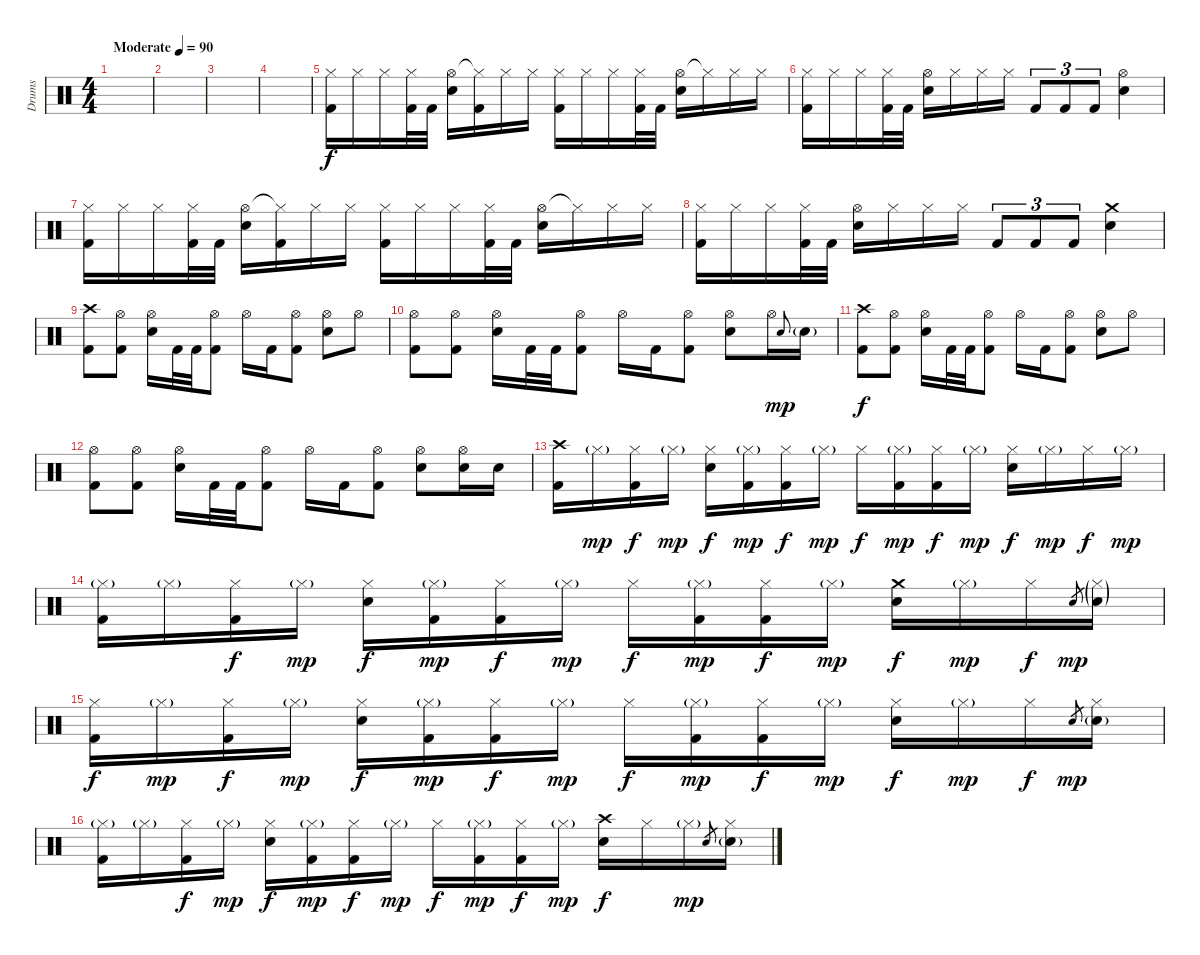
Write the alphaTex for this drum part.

\track ("Drums" "Drums") {instrument percussion}
\staff {score}
\articulation defaults
\ts (4 4)
\tempo (90 "Moderate")
\clef neutral
\ks c
|
|
|
|
("Hi-Hat (closed)" "Kick (hit) 2").16 "Hi-Hat (closed)".16 "Hi-Hat (closed)".16 ("Hi-Hat (closed)" "Kick (hit) 2").32 "Kick (hit) 2".32 ("Hi-Hat (open)" "Electric Snare (hit)").16 ("Hi-Hat (closed)"{t} "Kick (hit) 2").16 "Hi-Hat (closed)".16 "Hi-Hat (closed)".16 ("Hi-Hat (closed)" "Kick (hit) 2").16 "Hi-Hat (closed)".16 "Hi-Hat (closed)".16 ("Hi-Hat (closed)" "Kick (hit) 2").32 "Kick (hit) 2".32 ("Hi-Hat (open)" "Electric Snare (hit)").16 "Hi-Hat (closed)"{t}.16 "Hi-Hat (closed)".16 "Hi-Hat (closed)".16 |
("Hi-Hat (closed)" "Kick (hit) 2").16 "Hi-Hat (closed)".16 "Hi-Hat (closed)".16 ("Hi-Hat (closed)" "Kick (hit) 2").32 "Kick (hit) 2".32 ("Hi-Hat (open)" "Electric Snare (hit)").16 "Hi-Hat (closed)".16 "Hi-Hat (closed)".16 "Hi-Hat (closed)".16 "Kick (hit) 2".8{tu (3 2)} "Kick (hit) 2".8{tu (3 2)} "Kick (hit) 2".8{tu (3 2)} ("Hi-Hat (open)" "Electric Snare (hit)").4 |
("Hi-Hat (closed)" "Kick (hit) 2").16 "Hi-Hat (closed)".16 "Hi-Hat (closed)".16 ("Hi-Hat (closed)" "Kick (hit) 2").32 "Kick (hit) 2".32 ("Hi-Hat (open)" "Electric Snare (hit)").16 ("Hi-Hat (closed)"{t} "Kick (hit) 2").16 "Hi-Hat (closed)".16 "Hi-Hat (closed)".16 ("Hi-Hat (closed)" "Kick (hit) 2").16 "Hi-Hat (closed)".16 "Hi-Hat (closed)".16 ("Hi-Hat (closed)" "Kick (hit) 2").32 "Kick (hit) 2".32 ("Hi-Hat (open)" "Electric Snare (hit)").16 "Hi-Hat (closed)"{t}.16 "Hi-Hat (closed)".16 "Hi-Hat (closed)".16 |
("Hi-Hat (closed)" "Kick (hit) 2").16 "Hi-Hat (closed)".16 "Hi-Hat (closed)".16 ("Hi-Hat (closed)" "Kick (hit) 2").32 "Kick (hit) 2".32 ("Hi-Hat (open)" "Electric Snare (hit)").16 "Hi-Hat (closed)".16 "Hi-Hat (closed)".16 "Hi-Hat (closed)".16 "Kick (hit) 2".8{tu (3 2)} "Kick (hit) 2".8{tu (3 2)} "Kick (hit) 2".8{tu (3 2)} ("Crash medium (hit)" "Electric Snare (hit)").4 |
("Crash high (hit)" "Kick (hit) 2").8 ("Hi-Hat (open)" "Kick (hit) 2").8 ("Hi-Hat (open)" "Electric Snare (hit)").16 "Kick (hit) 2".32 "Kick (hit) 2".32 ("Hi-Hat (open)" "Kick (hit) 2").8 "Hi-Hat (open)".16 "Kick (hit) 2".16 ("Hi-Hat (open)" "Kick (hit) 2").8 ("Hi-Hat (open)" "Electric Snare (hit)").8 "Hi-Hat (open)".8 |
("Hi-Hat (open)" "Kick (hit) 2").8 ("Hi-Hat (open)" "Kick (hit) 2").8 ("Hi-Hat (open)" "Electric Snare (hit)").16 "Kick (hit) 2".32 "Kick (hit) 2".32 ("Hi-Hat (open)" "Kick (hit) 2").8 "Hi-Hat (open)".16 "Kick (hit) 2".16 ("Hi-Hat (open)" "Kick (hit) 2").8 ("Hi-Hat (open)" "Electric Snare (hit)").8 "Hi-Hat (open)".16 "Electric Snare (hit)"{x}.8{gr onbeat dy mp} "Electric Snare (hit)"{g}.16 |
("Crash high (hit)" "Kick (hit) 2").8{dy f} ("Hi-Hat (open)" "Kick (hit) 2").8 ("Hi-Hat (open)" "Electric Snare (hit)").16 "Kick (hit) 2".32 "Kick (hit) 2".32 ("Hi-Hat (open)" "Kick (hit) 2").8 "Hi-Hat (open)".16 "Kick (hit) 2".16 ("Hi-Hat (open)" "Kick (hit) 2").8 ("Hi-Hat (open)" "Electric Snare (hit)").8 "Hi-Hat (open)".8 |
("Hi-Hat (open)" "Kick (hit) 2").8 ("Hi-Hat (open)" "Kick (hit) 2").8 ("Hi-Hat (open)" "Electric Snare (hit)").16 "Kick (hit) 2".32 "Kick (hit) 2".32 ("Hi-Hat (open)" "Kick (hit) 2").8 "Hi-Hat (open)".16 "Kick (hit) 2".16 ("Hi-Hat (open)" "Kick (hit) 2").8 ("Hi-Hat (open)" "Electric Snare (hit)").8 ("Hi-Hat (open)" "Electric Snare (hit)").16 "Electric Snare (hit)".16 |
("Crash high (hit)" "Kick (hit) 2").16 "Hi-Hat (closed)"{g}.16{dy mp} ("Hi-Hat (closed)" "Kick (hit) 2").16{dy f} "Hi-Hat (closed)"{g}.16{dy mp} ("Hi-Hat (closed)" "Electric Snare (hit)").16{dy f} ("Hi-Hat (closed)"{g} "Kick (hit) 2").16{dy mp} ("Hi-Hat (closed)" "Kick (hit) 2").16{dy f} "Hi-Hat (closed)"{g}.16{dy mp} "Hi-Hat (closed)".16{dy f} ("Hi-Hat (closed)"{g} "Kick (hit) 2").16{dy mp} ("Hi-Hat (closed)" "Kick (hit) 2").16{dy f} "Hi-Hat (closed)"{g}.16{dy mp} ("Hi-Hat (closed)" "Electric Snare (hit)").16{dy f} "Hi-Hat (closed)"{g}.16{dy mp} "Hi-Hat (closed)".16{dy f} "Hi-Hat (closed)"{g}.16{dy mp} |
("Hi-Hat (closed)"{g} "Kick (hit) 2").16 "Hi-Hat (closed)"{g}.16 ("Hi-Hat (closed)" "Kick (hit) 2").16{dy f} "Hi-Hat (closed)"{g}.16{dy mp} ("Hi-Hat (closed)" "Electric Snare (hit)").16{dy f} ("Hi-Hat (closed)"{g} "Kick (hit) 2").16{dy mp} ("Hi-Hat (closed)" "Kick (hit) 2").16{dy f} "Hi-Hat (closed)"{g}.16{dy mp} "Hi-Hat (closed)".16{dy f} ("Hi-Hat (closed)"{g} "Kick (hit) 2").16{dy mp} ("Hi-Hat (closed)" "Kick (hit) 2").16{dy f} "Hi-Hat (closed)"{g}.16{dy mp} ("Crash medium (hit)" "Electric Snare (hit)").16{dy f} "Hi-Hat (closed)"{g}.16{dy mp} "Hi-Hat (closed)".16{dy f} "Electric Snare (hit)"{x}.8{gr dy mp} ("Hi-Hat (closed)"{g} "Electric Snare (hit)"{g}).16 |
("Hi-Hat (closed)" "Kick (hit) 2").16{dy f} "Hi-Hat (closed)"{g}.16{dy mp} ("Hi-Hat (closed)" "Kick (hit) 2").16{dy f} "Hi-Hat (closed)"{g}.16{dy mp} ("Hi-Hat (closed)" "Electric Snare (hit)").16{dy f} ("Hi-Hat (closed)"{g} "Kick (hit) 2").16{dy mp} ("Hi-Hat (closed)" "Kick (hit) 2").16{dy f} "Hi-Hat (closed)"{g}.16{dy mp} "Hi-Hat (closed)".16{dy f} ("Hi-Hat (closed)"{g} "Kick (hit) 2").16{dy mp} ("Hi-Hat (closed)" "Kick (hit) 2").16{dy f} "Hi-Hat (closed)"{g}.16{dy mp} ("Hi-Hat (closed)" "Electric Snare (hit)").16{dy f} "Hi-Hat (closed)"{g}.16{dy mp} "Hi-Hat (closed)".16{dy f} "Electric Snare (hit)".8{gr dy mp} ("Hi-Hat (closed)" "Electric Snare (hit)"{g}).16 |
("Hi-Hat (closed)"{g} "Kick (hit) 2").16 "Hi-Hat (closed)"{g}.16 ("Hi-Hat (closed)" "Kick (hit) 2").16{dy f} "Hi-Hat (closed)"{g}.16{dy mp} ("Hi-Hat (closed)" "Electric Snare (hit)").16{dy f} ("Hi-Hat (closed)"{g} "Kick (hit) 2").16{dy mp} ("Hi-Hat (closed)" "Kick (hit) 2").16{dy f} "Hi-Hat (closed)"{g}.16{dy mp} "Hi-Hat (closed)".16{dy f} ("Hi-Hat (closed)"{g} "Kick (hit) 2").16{dy mp} ("Hi-Hat (closed)" "Kick (hit) 2").16{dy f} "Hi-Hat (closed)"{g}.16{dy mp} ("Crash high (hit)" "Electric Snare (hit)").16{dy f} "Hi-Hat (closed)".16 "Hi-Hat (closed)"{g}.16{dy mp} "Electric Snare (hit)"{x}.8{gr} ("Hi-Hat (closed)" "Electric Snare (hit)"{g}).16
